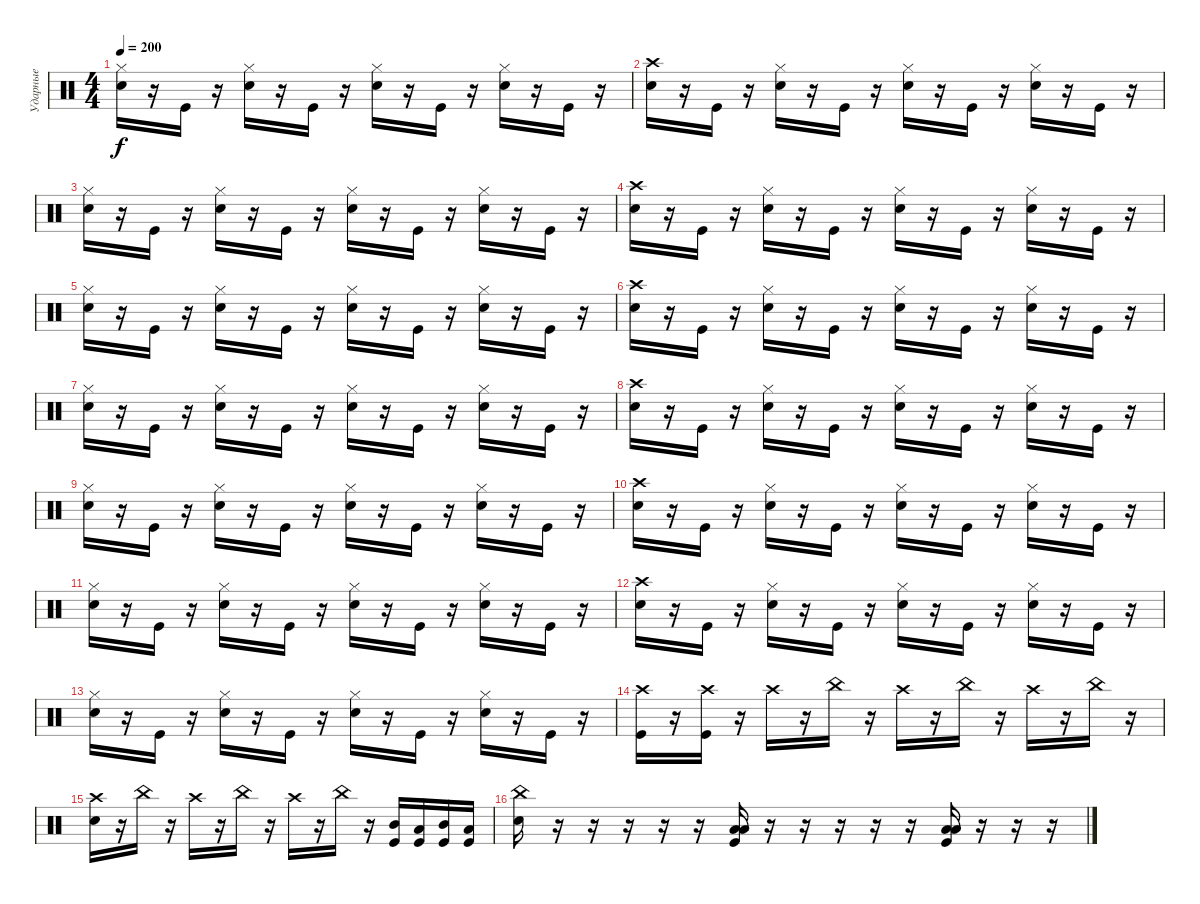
\track ("Ударные" "Ударные") {instrument percussion}
\staff {score}
\articulation defaults
\ts (4 4)
\tempo 200
\clef neutral
\ks c
("Hi-Hat (closed)" "Electric Snare (hit)").16{dy f} r.16 "Kick (hit)".16 r.16 ("Hi-Hat (closed)" "Electric Snare (hit)").16 r.16 "Kick (hit)".16 r.16 ("Hi-Hat (closed)" "Electric Snare (hit)").16 r.16 "Kick (hit)".16 r.16 ("Hi-Hat (closed)" "Electric Snare (hit)").16 r.16 "Kick (hit)".16 r.16 |
("Crash high (hit)" "Electric Snare (hit)").16 r.16 "Kick (hit)".16 r.16 ("Hi-Hat (closed)" "Electric Snare (hit)").16 r.16 "Kick (hit)".16 r.16 ("Hi-Hat (closed)" "Electric Snare (hit)").16 r.16 "Kick (hit)".16 r.16 ("Hi-Hat (closed)" "Electric Snare (hit)").16 r.16 "Kick (hit)".16 r.16 |
("Hi-Hat (closed)" "Electric Snare (hit)").16 r.16 "Kick (hit)".16 r.16 ("Hi-Hat (closed)" "Electric Snare (hit)").16 r.16 "Kick (hit)".16 r.16 ("Hi-Hat (closed)" "Electric Snare (hit)").16 r.16 "Kick (hit)".16 r.16 ("Hi-Hat (closed)" "Electric Snare (hit)").16 r.16 "Kick (hit)".16 r.16 |
("Crash high (hit)" "Electric Snare (hit)").16 r.16 "Kick (hit)".16 r.16 ("Hi-Hat (closed)" "Electric Snare (hit)").16 r.16 "Kick (hit)".16 r.16 ("Hi-Hat (closed)" "Electric Snare (hit)").16 r.16 "Kick (hit)".16 r.16 ("Hi-Hat (closed)" "Electric Snare (hit)").16 r.16 "Kick (hit)".16 r.16 |
("Hi-Hat (closed)" "Electric Snare (hit)").16 r.16 "Kick (hit)".16 r.16 ("Hi-Hat (closed)" "Electric Snare (hit)").16 r.16 "Kick (hit)".16 r.16 ("Hi-Hat (closed)" "Electric Snare (hit)").16 r.16 "Kick (hit)".16 r.16 ("Hi-Hat (closed)" "Electric Snare (hit)").16 r.16 "Kick (hit)".16 r.16 |
("Crash high (hit)" "Electric Snare (hit)").16 r.16 "Kick (hit)".16 r.16 ("Hi-Hat (closed)" "Electric Snare (hit)").16 r.16 "Kick (hit)".16 r.16 ("Hi-Hat (closed)" "Electric Snare (hit)").16 r.16 "Kick (hit)".16 r.16 ("Hi-Hat (closed)" "Electric Snare (hit)").16 r.16 "Kick (hit)".16 r.16 |
("Hi-Hat (closed)" "Electric Snare (hit)").16 r.16 "Kick (hit)".16 r.16 ("Hi-Hat (closed)" "Electric Snare (hit)").16 r.16 "Kick (hit)".16 r.16 ("Hi-Hat (closed)" "Electric Snare (hit)").16 r.16 "Kick (hit)".16 r.16 ("Hi-Hat (closed)" "Electric Snare (hit)").16 r.16 "Kick (hit)".16 r.16 |
("Crash high (hit)" "Electric Snare (hit)").16 r.16 "Kick (hit)".16 r.16 ("Hi-Hat (closed)" "Electric Snare (hit)").16 r.16 "Kick (hit)".16 r.16 ("Hi-Hat (closed)" "Electric Snare (hit)").16 r.16 "Kick (hit)".16 r.16 ("Hi-Hat (closed)" "Electric Snare (hit)").16 r.16 "Kick (hit)".16 r.16 |
("Hi-Hat (closed)" "Electric Snare (hit)").16 r.16 "Kick (hit)".16 r.16 ("Hi-Hat (closed)" "Electric Snare (hit)").16 r.16 "Kick (hit)".16 r.16 ("Hi-Hat (closed)" "Electric Snare (hit)").16 r.16 "Kick (hit)".16 r.16 ("Hi-Hat (closed)" "Electric Snare (hit)").16 r.16 "Kick (hit)".16 r.16 |
("Crash high (hit)" "Electric Snare (hit)").16 r.16 "Kick (hit)".16 r.16 ("Hi-Hat (closed)" "Electric Snare (hit)").16 r.16 "Kick (hit)".16 r.16 ("Hi-Hat (closed)" "Electric Snare (hit)").16 r.16 "Kick (hit)".16 r.16 ("Hi-Hat (closed)" "Electric Snare (hit)").16 r.16 "Kick (hit)".16 r.16 |
("Hi-Hat (closed)" "Electric Snare (hit)").16 r.16 "Kick (hit)".16 r.16 ("Hi-Hat (closed)" "Electric Snare (hit)").16 r.16 "Kick (hit)".16 r.16 ("Hi-Hat (closed)" "Electric Snare (hit)").16 r.16 "Kick (hit)".16 r.16 ("Hi-Hat (closed)" "Electric Snare (hit)").16 r.16 "Kick (hit)".16 r.16 |
("Crash high (hit)" "Electric Snare (hit)").16 r.16 "Kick (hit)".16 r.16 ("Hi-Hat (closed)" "Electric Snare (hit)").16 r.16 "Kick (hit)".16 r.16 ("Hi-Hat (closed)" "Electric Snare (hit)").16 r.16 "Kick (hit)".16 r.16 ("Hi-Hat (closed)" "Electric Snare (hit)").16 r.16 "Kick (hit)".16 r.16 |
("Hi-Hat (closed)" "Electric Snare (hit)").16 r.16 "Kick (hit)".16 r.16 ("Hi-Hat (closed)" "Electric Snare (hit)").16 r.16 "Kick (hit)".16 r.16 ("Hi-Hat (closed)" "Electric Snare (hit)").16 r.16 "Kick (hit)".16 r.16 ("Hi-Hat (closed)" "Electric Snare (hit)").16 r.16 "Kick (hit)".16 r.16 |
("Crash high (hit)" "Kick (hit)").16 r.16 ("Crash high (hit)" "Kick (hit)").16 r.16 "Crash high (hit)".16 r.16 "China (hit)".16 r.16 "Crash high (hit)".16 r.16 "China (hit)".16 r.16 "Crash high (hit)".16 r.16 "China (hit)".16 r.16 |
("Crash high (hit)" "Electric Snare (hit)").16 r.16 "China (hit)".16 r.16 "Crash high (hit)".16 r.16 "China (hit)".16 r.16 "Crash high (hit)".16 r.16 "China (hit)".16 r.16 ("Kick (hit)" "Mid Tom (hit)").16 ("Kick (hit)" "Low Tom (hit)").16 ("Kick (hit)" "Mid Tom (hit)").16 ("Kick (hit)" "Low Tom (hit)").16 |
("China (hit)" "Electric Snare (hit)").16 r.16 r.16 r.16 r.16 r.16 ("Low Floor Tom (hit)" "Kick (hit)" "Low Tom (hit)").16 r.16 r.16 r.16 r.16 r.16 ("Low Floor Tom (hit)" "Kick (hit)" "Low Tom (hit)").16 r.16 r.16 r.16
